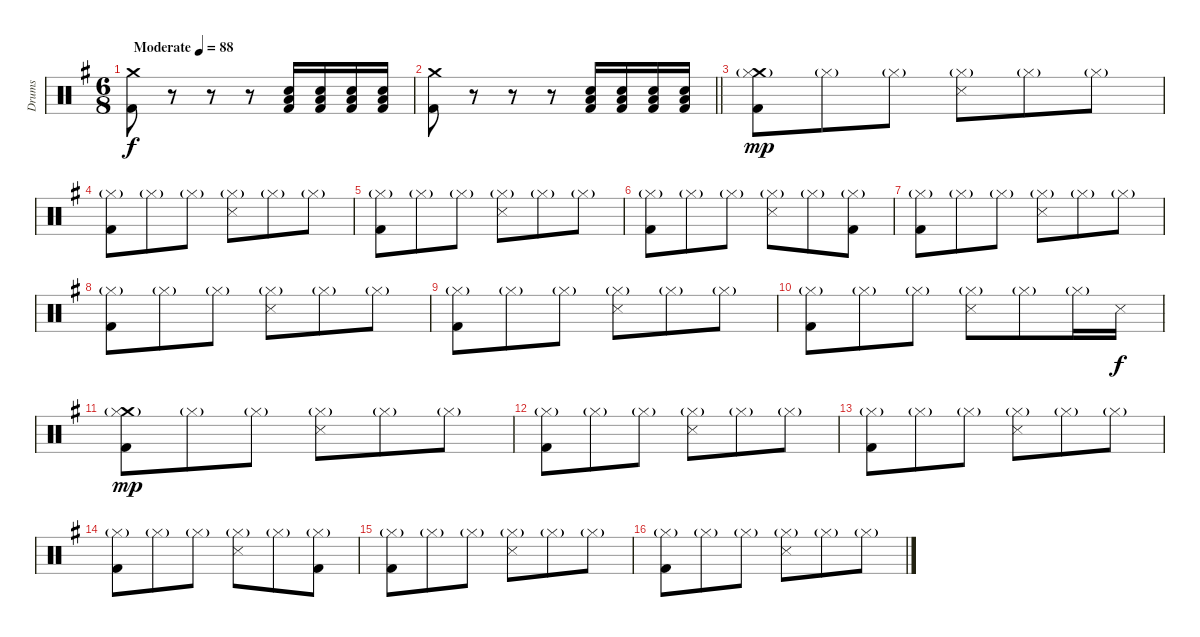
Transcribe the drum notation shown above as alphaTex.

\track ("Drums" "Drums") {instrument percussion}
\staff {score}
\articulation defaults
\ts (6 8)
\section ("" "")
\tempo (88 "Moderate")
\clef neutral
\ks eminor
("Crash medium (hit)" "Kick (hit) 2").8{dy f} r.8 r.8 r.8 ("Electric Snare (hit)" "Low Floor Tom (hit)" "Kick (hit) 2").16 ("Electric Snare (hit)" "Low Floor Tom (hit)" "Kick (hit) 2").16 ("Electric Snare (hit)" "Low Floor Tom (hit)" "Kick (hit) 2").16 ("Electric Snare (hit)" "Low Floor Tom (hit)" "Kick (hit) 2").16 |
\barLineRight lightlight
("Crash medium (hit)" "Kick (hit) 2").8 r.8 r.8 r.8 ("Electric Snare (hit)" "Low Floor Tom (hit)" "Kick (hit) 2").16 ("Electric Snare (hit)" "Low Floor Tom (hit)" "Kick (hit) 2").16 ("Electric Snare (hit)" "Low Floor Tom (hit)" "Kick (hit) 2").16 ("Electric Snare (hit)" "Low Floor Tom (hit)" "Kick (hit) 2").16 |
\section ("" "")
("Crash medium (hit)" "Hi-Hat (closed)"{g} "Kick (hit) 2").8{dy mp} "Hi-Hat (closed)"{g}.8 "Hi-Hat (closed)"{g}.8 ("Hi-Hat (closed)"{g} "Snare (side stick) 3").8 "Hi-Hat (closed)"{g}.8 "Hi-Hat (closed)"{g}.8 |
("Hi-Hat (closed)"{g} "Kick (hit) 2").8 "Hi-Hat (closed)"{g}.8 "Hi-Hat (closed)"{g}.8 ("Hi-Hat (closed)"{g} "Snare (side stick) 3").8 "Hi-Hat (closed)"{g}.8 "Hi-Hat (closed)"{g}.8 |
("Hi-Hat (closed)"{g} "Kick (hit) 2").8 "Hi-Hat (closed)"{g}.8 "Hi-Hat (closed)"{g}.8 ("Hi-Hat (closed)"{g} "Snare (side stick) 3").8 "Hi-Hat (closed)"{g}.8 "Hi-Hat (closed)"{g}.8 |
("Hi-Hat (closed)"{g} "Kick (hit) 2").8 "Hi-Hat (closed)"{g}.8 "Hi-Hat (closed)"{g}.8 ("Hi-Hat (closed)"{g} "Snare (side stick) 3").8 "Hi-Hat (closed)"{g}.8 ("Hi-Hat (closed)"{g} "Kick (hit) 2").8 |
("Hi-Hat (closed)"{g} "Kick (hit) 2").8 "Hi-Hat (closed)"{g}.8 "Hi-Hat (closed)"{g}.8 ("Hi-Hat (closed)"{g} "Snare (side stick) 3").8 "Hi-Hat (closed)"{g}.8 "Hi-Hat (closed)"{g}.8 |
("Hi-Hat (closed)"{g} "Kick (hit) 2").8 "Hi-Hat (closed)"{g}.8 "Hi-Hat (closed)"{g}.8 ("Hi-Hat (closed)"{g} "Snare (side stick) 3").8 "Hi-Hat (closed)"{g}.8 "Hi-Hat (closed)"{g}.8 |
("Hi-Hat (closed)"{g} "Kick (hit) 2").8 "Hi-Hat (closed)"{g}.8 "Hi-Hat (closed)"{g}.8 ("Hi-Hat (closed)"{g} "Snare (side stick) 3").8 "Hi-Hat (closed)"{g}.8 "Hi-Hat (closed)"{g}.8 |
("Hi-Hat (closed)"{g} "Kick (hit) 2").8 "Hi-Hat (closed)"{g}.8 "Hi-Hat (closed)"{g}.8 ("Hi-Hat (closed)"{g} "Snare (side stick) 3").8 "Hi-Hat (closed)"{g}.8 "Hi-Hat (closed)"{g}.16 "Snare (side stick) 3".16{dy f} |
("Crash medium (hit)" "Hi-Hat (closed)"{g} "Kick (hit) 2").8{dy mp} "Hi-Hat (closed)"{g}.8 "Hi-Hat (closed)"{g}.8 ("Hi-Hat (closed)"{g} "Snare (side stick) 3").8 "Hi-Hat (closed)"{g}.8 "Hi-Hat (closed)"{g}.8 |
("Hi-Hat (closed)"{g} "Kick (hit) 2").8 "Hi-Hat (closed)"{g}.8 "Hi-Hat (closed)"{g}.8 ("Hi-Hat (closed)"{g} "Snare (side stick) 3").8 "Hi-Hat (closed)"{g}.8 "Hi-Hat (closed)"{g}.8 |
("Hi-Hat (closed)"{g} "Kick (hit) 2").8 "Hi-Hat (closed)"{g}.8 "Hi-Hat (closed)"{g}.8 ("Hi-Hat (closed)"{g} "Snare (side stick) 3").8 "Hi-Hat (closed)"{g}.8 "Hi-Hat (closed)"{g}.8 |
("Hi-Hat (closed)"{g} "Kick (hit) 2").8 "Hi-Hat (closed)"{g}.8 "Hi-Hat (closed)"{g}.8 ("Hi-Hat (closed)"{g} "Snare (side stick) 3").8 "Hi-Hat (closed)"{g}.8 ("Hi-Hat (closed)"{g} "Kick (hit) 2").8 |
("Hi-Hat (closed)"{g} "Kick (hit) 2").8 "Hi-Hat (closed)"{g}.8 "Hi-Hat (closed)"{g}.8 ("Hi-Hat (closed)"{g} "Snare (side stick) 3").8 "Hi-Hat (closed)"{g}.8 "Hi-Hat (closed)"{g}.8 |
("Hi-Hat (closed)"{g} "Kick (hit) 2").8 "Hi-Hat (closed)"{g}.8 "Hi-Hat (closed)"{g}.8 ("Hi-Hat (closed)"{g} "Snare (side stick) 3").8 "Hi-Hat (closed)"{g}.8 "Hi-Hat (closed)"{g}.8
